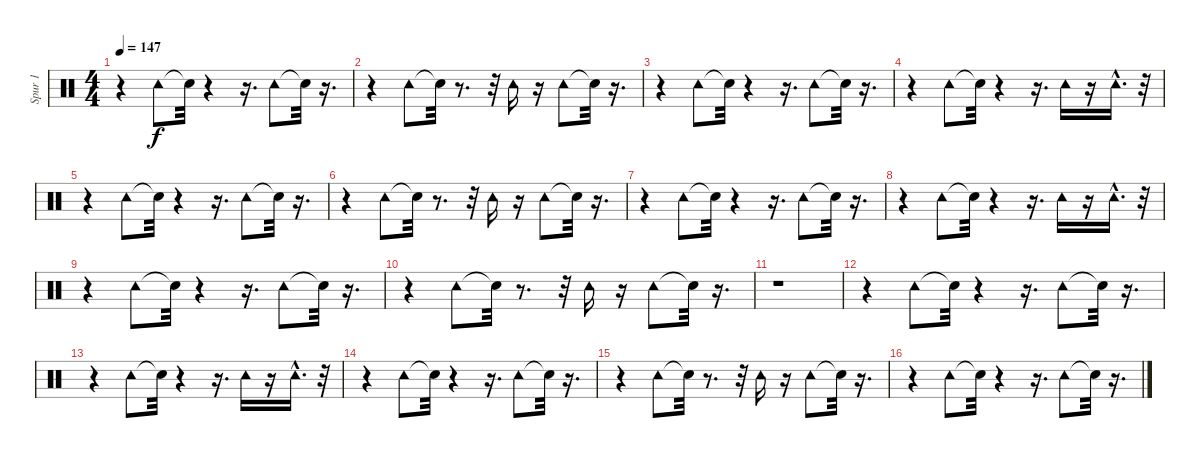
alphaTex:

\track ("Spur 1" "Spur 1") {instrument percussion}
\staff {score}
\articulation defaults
\ts (4 4)
\tempo 147
\clef neutral
\ks c
r.4{dy f} "Tambourine (hit)".8 "Snare (hit)"{t}.32 r.4 r.16{d} "Tambourine (hit)".8 "Snare (hit)"{t}.32 r.16{d} |
r.4 "Tambourine (hit)".8 "Snare (hit)"{t}.32 r.8{d} r.32 "Tambourine (hit)".16 r.16 "Tambourine (hit)".8 "Snare (hit)"{t}.32 r.16{d} |
r.4 "Tambourine (hit)".8 "Snare (hit)"{t}.32 r.4 r.16{d} "Tambourine (hit)".8 "Snare (hit)"{t}.32 r.16{d} |
r.4 "Tambourine (hit)".8 "Snare (hit)"{t}.32 r.4 r.16{d} "Tambourine (hit)".16 r.16 "Tambourine (hit)"{hac}.16{d} r.32 |
r.4 "Tambourine (hit)".8 "Snare (hit)"{t}.32 r.4 r.16{d} "Tambourine (hit)".8 "Snare (hit)"{t}.32 r.16{d} |
r.4 "Tambourine (hit)".8 "Snare (hit)"{t}.32 r.8{d} r.32 "Tambourine (hit)".16 r.16 "Tambourine (hit)".8 "Snare (hit)"{t}.32 r.16{d} |
r.4 "Tambourine (hit)".8 "Snare (hit)"{t}.32 r.4 r.16{d} "Tambourine (hit)".8 "Snare (hit)"{t}.32 r.16{d} |
r.4 "Tambourine (hit)".8 "Snare (hit)"{t}.32 r.4 r.16{d} "Tambourine (hit)".16 r.16 "Tambourine (hit)"{hac}.16{d} r.32 |
r.4 "Tambourine (hit)".8 "Snare (hit)"{t}.32 r.4 r.16{d} "Tambourine (hit)".8 "Snare (hit)"{t}.32 r.16{d} |
r.4 "Tambourine (hit)".8 "Snare (hit)"{t}.32 r.8{d} r.32 "Tambourine (hit)".16 r.16 "Tambourine (hit)".8 "Snare (hit)"{t}.32 r.16{d} |
r.1 |
r.4 "Tambourine (hit)".8 "Snare (hit)"{t}.32 r.4 r.16{d} "Tambourine (hit)".8 "Snare (hit)"{t}.32 r.16{d} |
r.4 "Tambourine (hit)".8 "Snare (hit)"{t}.32 r.4 r.16{d} "Tambourine (hit)".16 r.16 "Tambourine (hit)"{hac}.16{d} r.32 |
r.4 "Tambourine (hit)".8 "Snare (hit)"{t}.32 r.4 r.16{d} "Tambourine (hit)".8 "Snare (hit)"{t}.32 r.16{d} |
r.4 "Tambourine (hit)".8 "Snare (hit)"{t}.32 r.8{d} r.32 "Tambourine (hit)".16 r.16 "Tambourine (hit)".8 "Snare (hit)"{t}.32 r.16{d} |
r.4 "Tambourine (hit)".8 "Snare (hit)"{t}.32 r.4 r.16{d} "Tambourine (hit)".8 "Snare (hit)"{t}.32 r.16{d}
